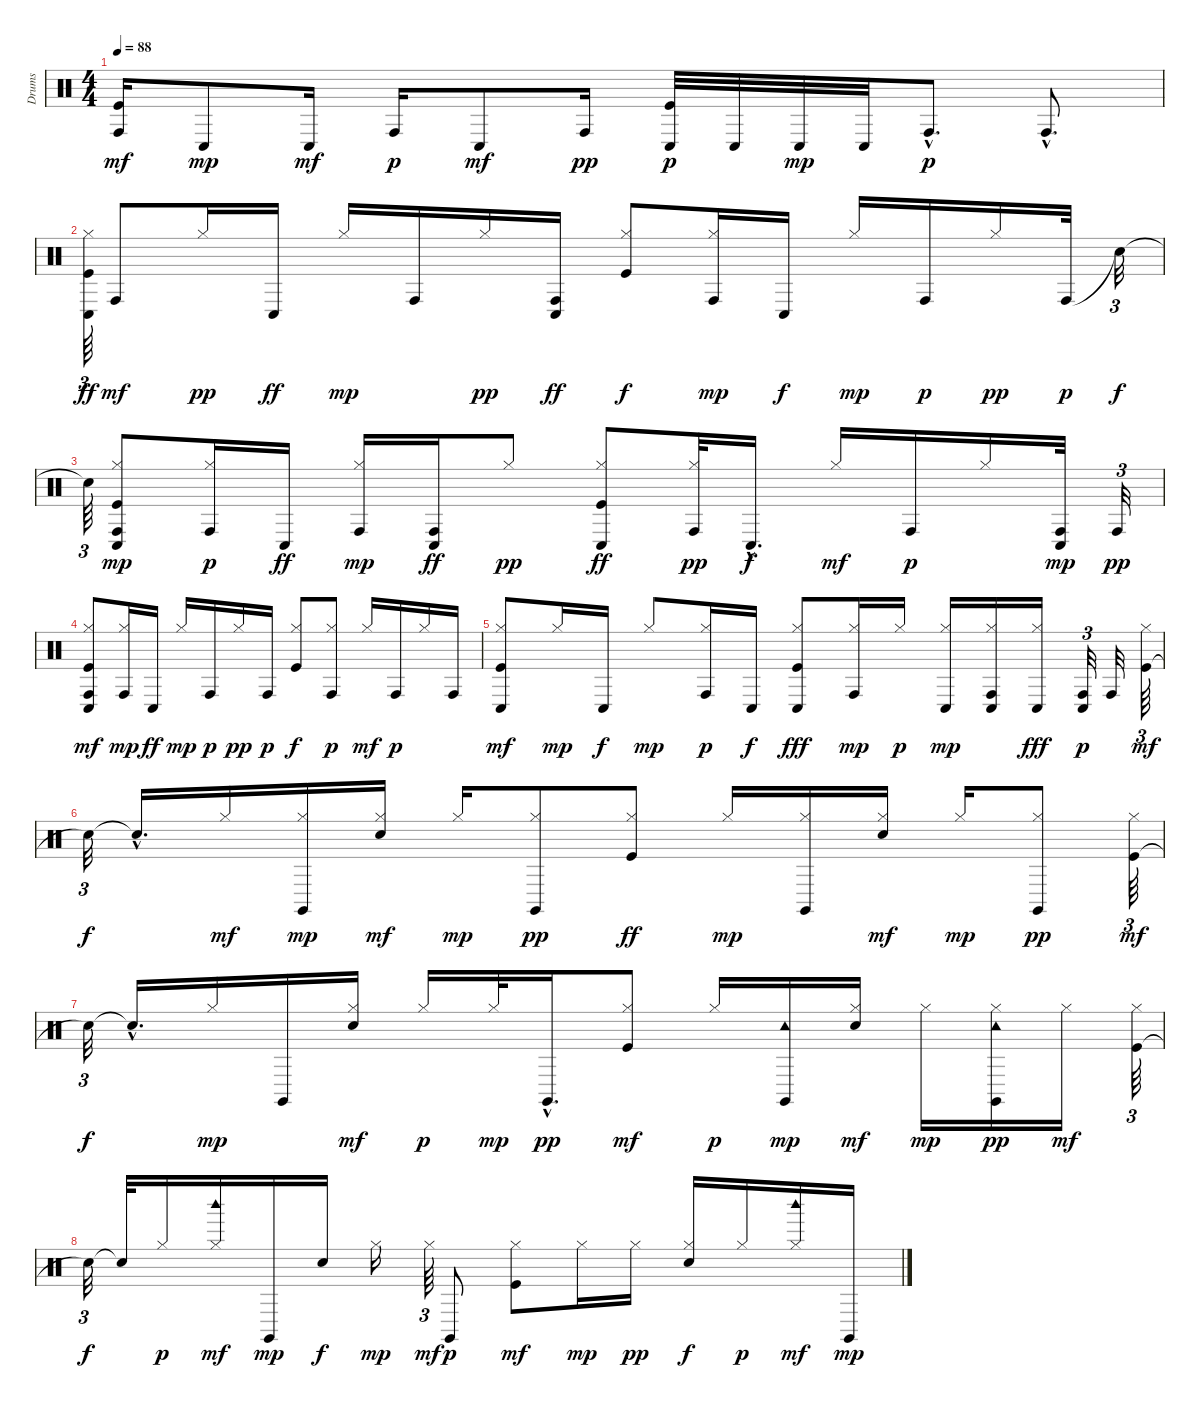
\track ("Drums" "Drums") {instrument percussion}
\staff {score}
\articulation defaults
\ts (4 4)
\tempo 88
\clef neutral
\ks c
("Kick (hit)" "Conga high (hit)").16{dy mf} "Conga low (hit)".8{dy mp} "Conga low (hit)".16{dy mf} "Conga high (hit)".16{dy p} "Conga low (hit)".8{dy mf} "Conga high (hit)".16{dy pp} ("Kick (hit)" "Conga low (hit)").32{dy p} "Conga low (hit)".32 "Conga low (hit)".32{dy mp} "Conga low (hit)".32 "Conga high (hit)"{hac}.8{d dy p} "Conga high (hit)"{hac}.8{d} |
("Hi-Hat (closed)" "Kick (hit)" "Conga low (hit)").64{tu (3 2) dy ff} "Conga high (hit)".8{dy mf} "Hi-Hat (closed)".16{dy pp} "Conga low (hit)".16{dy ff} "Hi-Hat (closed)".16{dy mp} "Conga high (hit)".16 "Hi-Hat (closed)".16{dy pp} ("Conga high (hit)" "Conga low (hit)").16{dy ff} ("Kick (hit)" "Hi-Hat (closed)").8{dy f} ("Hi-Hat (closed)" "Conga high (hit)").16{dy mp} "Conga low (hit)".16{dy f} "Hi-Hat (closed)".16{dy mp} "Conga high (hit)".16{dy p} "Hi-Hat (closed)".16{dy pp} "Conga high (hit)".32{dy p} "Snare (hit)"{t}.32{tu (3 2) dy f} |
"Snare (hit)"{t}.64{tu (3 2)} ("Kick (hit)" "Hi-Hat (closed)" "Conga low (hit)" "Conga high (hit)").8{dy mp} ("Hi-Hat (closed)" "Conga high (hit)").16{dy p} "Conga low (hit)".16{dy ff} ("Hi-Hat (closed)" "Conga high (hit)").16{dy mp} ("Conga high (hit)" "Conga low (hit)").16{dy ff} "Hi-Hat (closed)".8{dy pp} ("Kick (hit)" "Hi-Hat (closed)" "Conga low (hit)").8{dy ff} ("Hi-Hat (closed)" "Conga high (hit)").32{dy pp} "Conga low (hit)"{hac}.16{d dy f} "Hi-Hat (closed)".16{dy mf} "Conga high (hit)".16{dy p} "Hi-Hat (closed)".16 ("Conga low (hit)" "Conga high (hit)").32{dy mp} "Conga high (hit)".32{tu (3 2) dy pp} |
("Kick (hit)" "Hi-Hat (closed)" "Conga low (hit)" "Conga high (hit)").8{dy mf} ("Hi-Hat (closed)" "Conga high (hit)").16{dy mp} "Conga low (hit)".16{dy ff} "Hi-Hat (closed)".16{dy mp} "Conga high (hit)".16{dy p} "Hi-Hat (closed)".16{dy pp} "Conga high (hit)".16{dy p} ("Kick (hit)" "Hi-Hat (closed)").8{dy f} ("Hi-Hat (closed)" "Conga high (hit)").8{dy p} "Hi-Hat (closed)".16{dy mf} "Conga high (hit)".16{dy p} "Hi-Hat (closed)".16 "Conga high (hit)".16 |
("Kick (hit)" "Conga low (hit)" "Hi-Hat (closed)").8{dy mf} "Hi-Hat (closed)".16{dy mp} "Conga low (hit)".16{dy f} "Hi-Hat (closed)".8{dy mp} ("Hi-Hat (closed)" "Conga high (hit)").16{dy p} "Conga low (hit)".16{dy f} ("Hi-Hat (closed)" "Kick (hit)" "Conga low (hit)").8{dy fff} ("Hi-Hat (closed)" "Conga high (hit)").16{dy mp} "Hi-Hat (closed)".16{dy p} ("Hi-Hat (closed)" "Conga low (hit)").16{dy mp} ("Hi-Hat (closed)" "Conga high (hit)" "Conga low (hit)").16 ("Hi-Hat (closed)" "Conga low (hit)").16{dy fff} ("Conga low (hit)" "Conga high (hit)").32{tu (3 2) dy p} "Conga high (hit)".32 ("Kick (hit)" "Hi-Hat (closed)").64{tu (3 2) dy mf} |
"Snare (hit)"{t}.32{tu (3 2) dy f} "Snare (hit)"{hac t}.16{d} "Hi-Hat (closed)".16{dy mf} ("Hi-Hat (closed)" "Claves (hit)").16{dy mp} ("Electric Snare (hit)" "Hi-Hat (closed)").16{dy mf} "Hi-Hat (closed)".16{dy mp} ("Hi-Hat (closed)" "Claves (hit)").8{dy pp} ("Kick (hit)" "Hi-Hat (closed)").8{dy ff} "Hi-Hat (closed)".16{dy mp} ("Hi-Hat (closed)" "Claves (hit)").16 ("Electric Snare (hit)" "Hi-Hat (closed)").16{dy mf} "Hi-Hat (closed)".16{dy mp} ("Hi-Hat (closed)" "Claves (hit)").8{dy pp} ("Kick (hit)" "Hi-Hat (closed)").64{tu (3 2) dy mf} |
"Snare (hit)"{t}.32{tu (3 2) dy f} "Snare (hit)"{hac t}.16{d} "Hi-Hat (closed)".16{dy mp} "Claves (hit)".16 ("Electric Snare (hit)" "Hi-Hat (closed)").16{dy mf} "Hi-Hat (closed)".16{dy p} "Hi-Hat (closed)".32{dy mp} "Claves (hit)"{hac}.16{d dy pp} ("Kick (hit)" "Hi-Hat (closed)").8{dy mf} "Hi-Hat (closed)".16{dy p} ("Tambourine (hit)" "Claves (hit)").16{dy mp} ("Electric Snare (hit)" "Hi-Hat (closed)").16{dy mf} "Hi-Hat (closed)".16{dy mp} ("Hi-Hat (closed)" "Tambourine (hit)" "Claves (hit)").16{dy pp} "Hi-Hat (closed)".16{dy mf} ("Kick (hit)" "Hi-Hat (closed)").64{tu (3 2)} |
"Snare (hit)"{t}.32{tu (3 2) dy f} "Snare (hit)"{t}.32 "Hi-Hat (closed)".16{dy p} ("Woodblock high (hit)" "Hi-Hat (closed)").16{dy mf} "Claves (hit)".16{dy mp} "Electric Snare (hit)".16{dy f} "Hi-Hat (closed)".16{dy mp} "Hi-Hat (closed)".64{tu (3 2) dy mf} "Claves (hit)".8{dy p} ("Kick (hit)" "Hi-Hat (closed)").8{dy mf} "Hi-Hat (closed)".16{dy mp} "Hi-Hat (closed)".16{dy pp} ("Electric Snare (hit)" "Hi-Hat (closed)").16{dy f} "Hi-Hat (closed)".16{dy p} ("Hi-Hat (closed)" "Woodblock high (hit)").16{dy mf} "Claves (hit)".16{dy mp}
